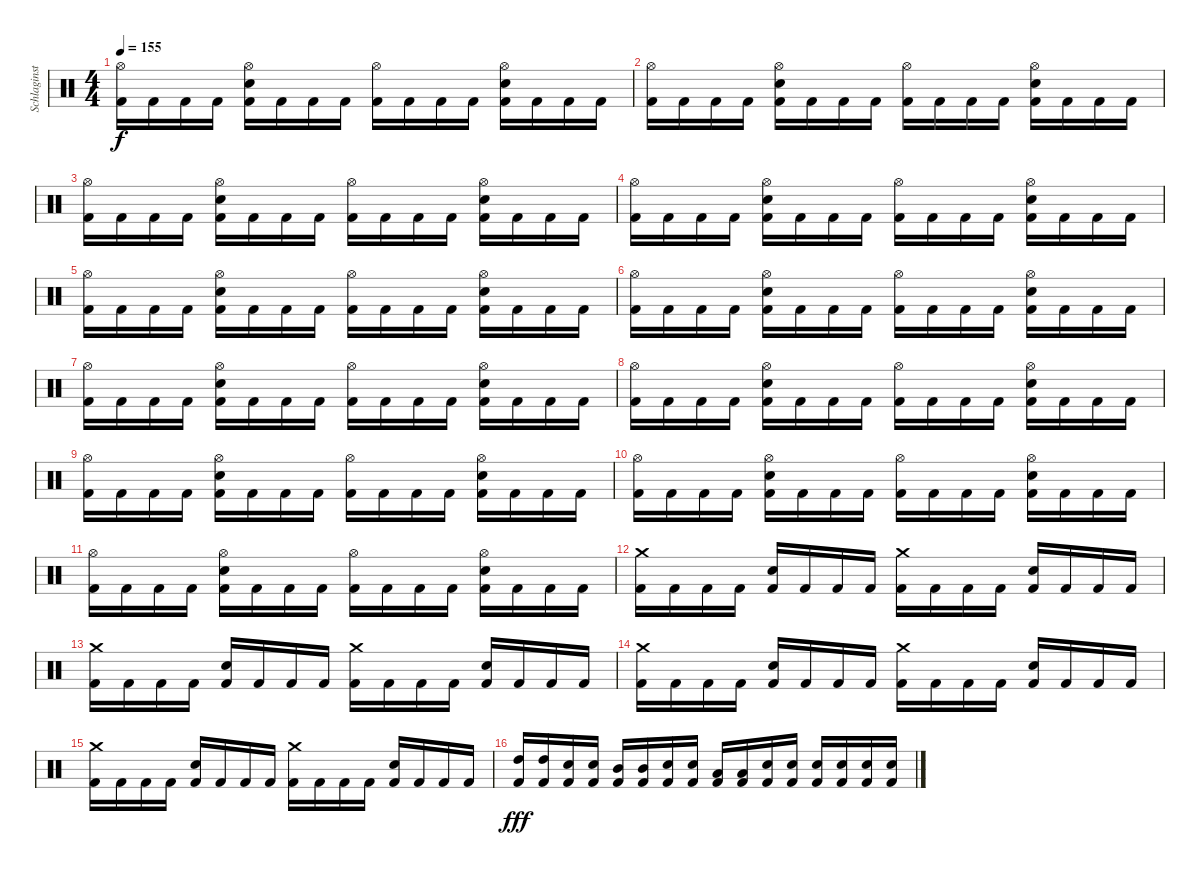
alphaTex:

\track ("Schlaginstrumente - Auswahl" "Schlaginst") {instrument percussion}
\staff {score}
\articulation defaults
\ts (4 4)
\tempo 155
\clef neutral
\ks c
("Hi-Hat (open)" "Kick (hit) 2").16{dy f} "Kick (hit) 2".16 "Kick (hit) 2".16 "Kick (hit) 2".16 ("Hi-Hat (open)" "Snare (hit) 2" "Kick (hit) 2").16 "Kick (hit) 2".16 "Kick (hit) 2".16 "Kick (hit) 2".16 ("Hi-Hat (open)" "Kick (hit) 2").16 "Kick (hit) 2".16 "Kick (hit) 2".16 "Kick (hit) 2".16 ("Hi-Hat (open)" "Snare (hit) 2" "Kick (hit) 2").16 "Kick (hit) 2".16 "Kick (hit) 2".16 "Kick (hit) 2".16 |
("Hi-Hat (open)" "Kick (hit) 2").16 "Kick (hit) 2".16 "Kick (hit) 2".16 "Kick (hit) 2".16 ("Hi-Hat (open)" "Snare (hit) 2" "Kick (hit) 2").16 "Kick (hit) 2".16 "Kick (hit) 2".16 "Kick (hit) 2".16 ("Hi-Hat (open)" "Kick (hit) 2").16 "Kick (hit) 2".16 "Kick (hit) 2".16 "Kick (hit) 2".16 ("Hi-Hat (open)" "Snare (hit) 2" "Kick (hit) 2").16 "Kick (hit) 2".16 "Kick (hit) 2".16 "Kick (hit) 2".16 |
("Hi-Hat (open)" "Kick (hit) 2").16 "Kick (hit) 2".16 "Kick (hit) 2".16 "Kick (hit) 2".16 ("Hi-Hat (open)" "Snare (hit) 2" "Kick (hit) 2").16 "Kick (hit) 2".16 "Kick (hit) 2".16 "Kick (hit) 2".16 ("Hi-Hat (open)" "Kick (hit) 2").16 "Kick (hit) 2".16 "Kick (hit) 2".16 "Kick (hit) 2".16 ("Hi-Hat (open)" "Snare (hit) 2" "Kick (hit) 2").16 "Kick (hit) 2".16 "Kick (hit) 2".16 "Kick (hit) 2".16 |
("Hi-Hat (open)" "Kick (hit) 2").16 "Kick (hit) 2".16 "Kick (hit) 2".16 "Kick (hit) 2".16 ("Hi-Hat (open)" "Snare (hit) 2" "Kick (hit) 2").16 "Kick (hit) 2".16 "Kick (hit) 2".16 "Kick (hit) 2".16 ("Hi-Hat (open)" "Kick (hit) 2").16 "Kick (hit) 2".16 "Kick (hit) 2".16 "Kick (hit) 2".16 ("Hi-Hat (open)" "Snare (hit) 2" "Kick (hit) 2").16 "Kick (hit) 2".16 "Kick (hit) 2".16 "Kick (hit) 2".16 |
("Hi-Hat (open)" "Kick (hit) 2").16 "Kick (hit) 2".16 "Kick (hit) 2".16 "Kick (hit) 2".16 ("Hi-Hat (open)" "Snare (hit) 2" "Kick (hit) 2").16 "Kick (hit) 2".16 "Kick (hit) 2".16 "Kick (hit) 2".16 ("Hi-Hat (open)" "Kick (hit) 2").16 "Kick (hit) 2".16 "Kick (hit) 2".16 "Kick (hit) 2".16 ("Hi-Hat (open)" "Snare (hit) 2" "Kick (hit) 2").16 "Kick (hit) 2".16 "Kick (hit) 2".16 "Kick (hit) 2".16 |
("Hi-Hat (open)" "Kick (hit) 2").16 "Kick (hit) 2".16 "Kick (hit) 2".16 "Kick (hit) 2".16 ("Hi-Hat (open)" "Snare (hit) 2" "Kick (hit) 2").16 "Kick (hit) 2".16 "Kick (hit) 2".16 "Kick (hit) 2".16 ("Hi-Hat (open)" "Kick (hit) 2").16 "Kick (hit) 2".16 "Kick (hit) 2".16 "Kick (hit) 2".16 ("Hi-Hat (open)" "Snare (hit) 2" "Kick (hit) 2").16 "Kick (hit) 2".16 "Kick (hit) 2".16 "Kick (hit) 2".16 |
("Hi-Hat (open)" "Kick (hit) 2").16 "Kick (hit) 2".16 "Kick (hit) 2".16 "Kick (hit) 2".16 ("Hi-Hat (open)" "Snare (hit) 2" "Kick (hit) 2").16 "Kick (hit) 2".16 "Kick (hit) 2".16 "Kick (hit) 2".16 ("Hi-Hat (open)" "Kick (hit) 2").16 "Kick (hit) 2".16 "Kick (hit) 2".16 "Kick (hit) 2".16 ("Hi-Hat (open)" "Snare (hit) 2" "Kick (hit) 2").16 "Kick (hit) 2".16 "Kick (hit) 2".16 "Kick (hit) 2".16 |
("Hi-Hat (open)" "Kick (hit) 2").16 "Kick (hit) 2".16 "Kick (hit) 2".16 "Kick (hit) 2".16 ("Hi-Hat (open)" "Snare (hit) 2" "Kick (hit) 2").16 "Kick (hit) 2".16 "Kick (hit) 2".16 "Kick (hit) 2".16 ("Hi-Hat (open)" "Kick (hit) 2").16 "Kick (hit) 2".16 "Kick (hit) 2".16 "Kick (hit) 2".16 ("Hi-Hat (open)" "Snare (hit) 2" "Kick (hit) 2").16 "Kick (hit) 2".16 "Kick (hit) 2".16 "Kick (hit) 2".16 |
("Hi-Hat (open)" "Kick (hit) 2").16 "Kick (hit) 2".16 "Kick (hit) 2".16 "Kick (hit) 2".16 ("Hi-Hat (open)" "Snare (hit) 2" "Kick (hit) 2").16 "Kick (hit) 2".16 "Kick (hit) 2".16 "Kick (hit) 2".16 ("Hi-Hat (open)" "Kick (hit) 2").16 "Kick (hit) 2".16 "Kick (hit) 2".16 "Kick (hit) 2".16 ("Hi-Hat (open)" "Snare (hit) 2" "Kick (hit) 2").16 "Kick (hit) 2".16 "Kick (hit) 2".16 "Kick (hit) 2".16 |
("Hi-Hat (open)" "Kick (hit) 2").16 "Kick (hit) 2".16 "Kick (hit) 2".16 "Kick (hit) 2".16 ("Hi-Hat (open)" "Snare (hit) 2" "Kick (hit) 2").16 "Kick (hit) 2".16 "Kick (hit) 2".16 "Kick (hit) 2".16 ("Hi-Hat (open)" "Kick (hit) 2").16 "Kick (hit) 2".16 "Kick (hit) 2".16 "Kick (hit) 2".16 ("Hi-Hat (open)" "Snare (hit) 2" "Kick (hit) 2").16 "Kick (hit) 2".16 "Kick (hit) 2".16 "Kick (hit) 2".16 |
("Hi-Hat (open)" "Kick (hit) 2").16 "Kick (hit) 2".16 "Kick (hit) 2".16 "Kick (hit) 2".16 ("Hi-Hat (open)" "Snare (hit) 2" "Kick (hit) 2").16 "Kick (hit) 2".16 "Kick (hit) 2".16 "Kick (hit) 2".16 ("Hi-Hat (open)" "Kick (hit) 2").16 "Kick (hit) 2".16 "Kick (hit) 2".16 "Kick (hit) 2".16 ("Hi-Hat (open)" "Snare (hit) 2" "Kick (hit) 2").16 "Kick (hit) 2".16 "Kick (hit) 2".16 "Kick (hit) 2".16 |
("Crash medium (hit)" "Kick (hit) 2").16 "Kick (hit) 2".16 "Kick (hit) 2".16 "Kick (hit) 2".16 ("Snare (hit) 2" "Kick (hit) 2").16 "Kick (hit) 2".16 "Kick (hit) 2".16 "Kick (hit) 2".16 ("Crash medium (hit)" "Kick (hit) 2").16 "Kick (hit) 2".16 "Kick (hit) 2".16 "Kick (hit) 2".16 ("Snare (hit) 2" "Kick (hit) 2").16 "Kick (hit) 2".16 "Kick (hit) 2".16 "Kick (hit) 2".16 |
("Crash medium (hit)" "Kick (hit) 2").16 "Kick (hit) 2".16 "Kick (hit) 2".16 "Kick (hit) 2".16 ("Snare (hit) 2" "Kick (hit) 2").16 "Kick (hit) 2".16 "Kick (hit) 2".16 "Kick (hit) 2".16 ("Crash medium (hit)" "Kick (hit) 2").16 "Kick (hit) 2".16 "Kick (hit) 2".16 "Kick (hit) 2".16 ("Snare (hit) 2" "Kick (hit) 2").16 "Kick (hit) 2".16 "Kick (hit) 2".16 "Kick (hit) 2".16 |
("Crash medium (hit)" "Kick (hit) 2").16 "Kick (hit) 2".16 "Kick (hit) 2".16 "Kick (hit) 2".16 ("Snare (hit) 2" "Kick (hit) 2").16 "Kick (hit) 2".16 "Kick (hit) 2".16 "Kick (hit) 2".16 ("Crash medium (hit)" "Kick (hit) 2").16 "Kick (hit) 2".16 "Kick (hit) 2".16 "Kick (hit) 2".16 ("Snare (hit) 2" "Kick (hit) 2").16 "Kick (hit) 2".16 "Kick (hit) 2".16 "Kick (hit) 2".16 |
("Crash medium (hit)" "Kick (hit) 2").16 "Kick (hit) 2".16 "Kick (hit) 2".16 "Kick (hit) 2".16 ("Snare (hit) 2" "Kick (hit) 2").16 "Kick (hit) 2".16 "Kick (hit) 2".16 "Kick (hit) 2".16 ("Crash medium (hit)" "Kick (hit) 2").16 "Kick (hit) 2".16 "Kick (hit) 2".16 "Kick (hit) 2".16 ("Snare (hit) 2" "Kick (hit) 2").16 "Kick (hit) 2".16 "Kick (hit) 2".16 "Kick (hit) 2".16 |
("High Tom (hit)" "Kick (hit) 2").16{dy fff} ("High Tom (hit)" "Kick (hit) 2").16 ("Snare (hit) 2" "Kick (hit) 2").16 ("Snare (hit) 2" "Kick (hit) 2").16 ("Mid Tom (hit)" "Kick (hit) 2").16 ("Mid Tom (hit)" "Kick (hit) 2").16 ("Snare (hit) 2" "Kick (hit) 2").16 ("Snare (hit) 2" "Kick (hit) 2").16 ("Low Tom (hit)" "Kick (hit) 2").16 ("Low Tom (hit)" "Kick (hit) 2").16 ("Snare (hit) 2" "Kick (hit) 2").16 ("Snare (hit) 2" "Kick (hit) 2").16 ("Snare (hit) 2" "Kick (hit) 2").16 ("Snare (hit) 2" "Kick (hit) 2").16 ("Snare (hit) 2" "Kick (hit) 2").16 ("Snare (hit) 2" "Kick (hit) 2").16
